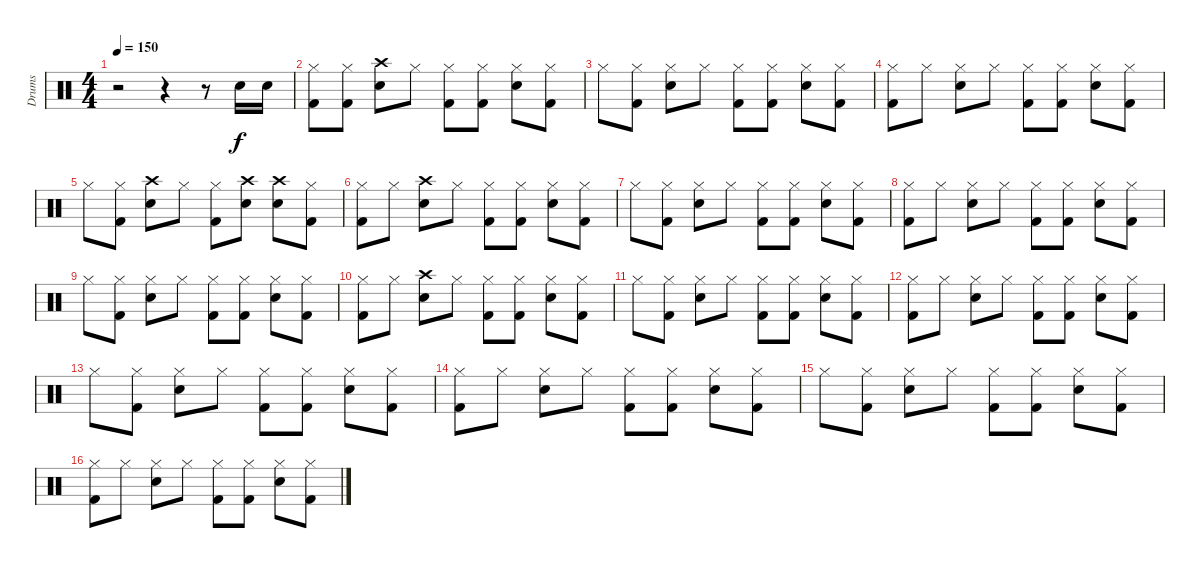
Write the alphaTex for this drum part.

\track ("Drums" "Drums") {instrument percussion}
\staff {score}
\articulation defaults
\ts (4 4)
\tempo 150
\clef neutral
\ks c
r.2{dy f} r.4 r.8 "Snare (hit) 2".16 "Snare (hit) 2".16 |
("Kick (hit) 2" "Hi-Hat (closed)").8 ("Kick (hit) 2" "Hi-Hat (closed)").8 ("Snare (hit) 2" "Crash high (hit)").8 "Hi-Hat (closed)".8 ("Kick (hit) 2" "Hi-Hat (closed)").8 ("Kick (hit) 2" "Hi-Hat (closed)").8 ("Snare (hit) 2" "Hi-Hat (closed)").8 ("Kick (hit) 2" "Hi-Hat (closed)").8 |
"Hi-Hat (closed)".8 ("Kick (hit) 2" "Hi-Hat (closed)").8 ("Snare (hit) 2" "Hi-Hat (closed)").8 "Hi-Hat (closed)".8 ("Kick (hit) 2" "Hi-Hat (closed)").8 ("Kick (hit) 2" "Hi-Hat (closed)").8 ("Snare (hit) 2" "Hi-Hat (closed)").8 ("Kick (hit) 2" "Hi-Hat (closed)").8 |
("Kick (hit) 2" "Hi-Hat (closed)").8 "Hi-Hat (closed)".8 ("Snare (hit) 2" "Hi-Hat (closed)").8 "Hi-Hat (closed)".8 ("Kick (hit) 2" "Hi-Hat (closed)").8 ("Kick (hit) 2" "Hi-Hat (closed)").8 ("Snare (hit) 2" "Hi-Hat (closed)").8 ("Kick (hit) 2" "Hi-Hat (closed)").8 |
"Hi-Hat (closed)".8 ("Kick (hit) 2" "Hi-Hat (closed)").8 ("Crash high (hit)" "Snare (hit) 2").8 "Hi-Hat (closed)".8 ("Kick (hit) 2" "Hi-Hat (closed)").8 ("Crash high (hit)" "Snare (hit) 2").8 ("Crash high (hit)" "Snare (hit) 2").8 ("Kick (hit) 2" "Hi-Hat (closed)").8 |
("Kick (hit) 2" "Hi-Hat (closed)").8 "Hi-Hat (closed)".8 ("Snare (hit) 2" "Crash high (hit)").8 "Hi-Hat (closed)".8 ("Kick (hit) 2" "Hi-Hat (closed)").8 ("Kick (hit) 2" "Hi-Hat (closed)").8 ("Snare (hit) 2" "Hi-Hat (closed)").8 ("Kick (hit) 2" "Hi-Hat (closed)").8 |
"Hi-Hat (closed)".8 ("Kick (hit) 2" "Hi-Hat (closed)").8 ("Snare (hit) 2" "Hi-Hat (closed)").8 "Hi-Hat (closed)".8 ("Kick (hit) 2" "Hi-Hat (closed)").8 ("Kick (hit) 2" "Hi-Hat (closed)").8 ("Snare (hit) 2" "Hi-Hat (closed)").8 ("Kick (hit) 2" "Hi-Hat (closed)").8 |
("Kick (hit) 2" "Hi-Hat (closed)").8 "Hi-Hat (closed)".8 ("Snare (hit) 2" "Hi-Hat (closed)").8 "Hi-Hat (closed)".8 ("Kick (hit) 2" "Hi-Hat (closed)").8 ("Kick (hit) 2" "Hi-Hat (closed)").8 ("Snare (hit) 2" "Hi-Hat (closed)").8 ("Kick (hit) 2" "Hi-Hat (closed)").8 |
"Hi-Hat (closed)".8 ("Kick (hit) 2" "Hi-Hat (closed)").8 ("Snare (hit) 2" "Hi-Hat (closed)").8 "Hi-Hat (closed)".8 ("Kick (hit) 2" "Hi-Hat (closed)").8 ("Kick (hit) 2" "Hi-Hat (closed)").8 ("Snare (hit) 2" "Hi-Hat (closed)").8 ("Kick (hit) 2" "Hi-Hat (closed)").8 |
("Kick (hit) 2" "Hi-Hat (closed)").8 "Hi-Hat (closed)".8 ("Snare (hit) 2" "Crash high (hit)").8 "Hi-Hat (closed)".8 ("Kick (hit) 2" "Hi-Hat (closed)").8 ("Kick (hit) 2" "Hi-Hat (closed)").8 ("Snare (hit) 2" "Hi-Hat (closed)").8 ("Kick (hit) 2" "Hi-Hat (closed)").8 |
"Hi-Hat (closed)".8 ("Kick (hit) 2" "Hi-Hat (closed)").8 ("Snare (hit) 2" "Hi-Hat (closed)").8 "Hi-Hat (closed)".8 ("Kick (hit) 2" "Hi-Hat (closed)").8 ("Kick (hit) 2" "Hi-Hat (closed)").8 ("Snare (hit) 2" "Hi-Hat (closed)").8 ("Kick (hit) 2" "Hi-Hat (closed)").8 |
("Kick (hit) 2" "Hi-Hat (closed)").8 "Hi-Hat (closed)".8 ("Snare (hit) 2" "Hi-Hat (closed)").8 "Hi-Hat (closed)".8 ("Kick (hit) 2" "Hi-Hat (closed)").8 ("Kick (hit) 2" "Hi-Hat (closed)").8 ("Snare (hit) 2" "Hi-Hat (closed)").8 ("Kick (hit) 2" "Hi-Hat (closed)").8 |
"Hi-Hat (closed)".8 ("Kick (hit) 2" "Hi-Hat (closed)").8 ("Snare (hit) 2" "Hi-Hat (closed)").8 "Hi-Hat (closed)".8 ("Kick (hit) 2" "Hi-Hat (closed)").8 ("Kick (hit) 2" "Hi-Hat (closed)").8 ("Snare (hit) 2" "Hi-Hat (closed)").8 ("Kick (hit) 2" "Hi-Hat (closed)").8 |
("Kick (hit) 2" "Hi-Hat (closed)").8 "Hi-Hat (closed)".8 ("Snare (hit) 2" "Hi-Hat (closed)").8 "Hi-Hat (closed)".8 ("Kick (hit) 2" "Hi-Hat (closed)").8 ("Kick (hit) 2" "Hi-Hat (closed)").8 ("Snare (hit) 2" "Hi-Hat (closed)").8 ("Kick (hit) 2" "Hi-Hat (closed)").8 |
"Hi-Hat (closed)".8 ("Kick (hit) 2" "Hi-Hat (closed)").8 ("Snare (hit) 2" "Hi-Hat (closed)").8 "Hi-Hat (closed)".8 ("Kick (hit) 2" "Hi-Hat (closed)").8 ("Kick (hit) 2" "Hi-Hat (closed)").8 ("Snare (hit) 2" "Hi-Hat (closed)").8 ("Kick (hit) 2" "Hi-Hat (closed)").8 |
("Kick (hit) 2" "Hi-Hat (closed)").8 "Hi-Hat (closed)".8 ("Snare (hit) 2" "Hi-Hat (closed)").8 "Hi-Hat (closed)".8 ("Kick (hit) 2" "Hi-Hat (closed)").8 ("Kick (hit) 2" "Hi-Hat (closed)").8 ("Snare (hit) 2" "Hi-Hat (closed)").8 ("Kick (hit) 2" "Hi-Hat (closed)").8
